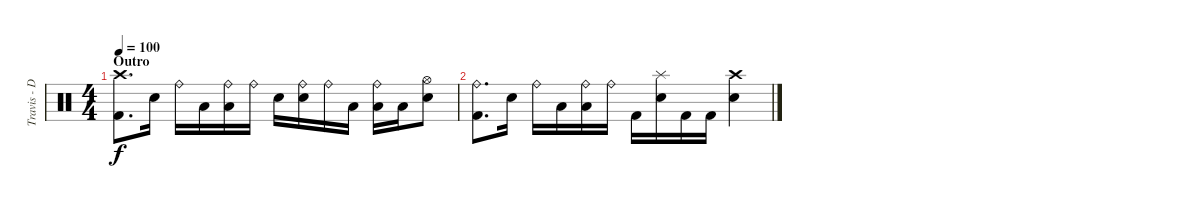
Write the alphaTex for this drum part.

\track ("Travis - Drums" "Travis - D") {instrument percussion}
\staff {score}
\articulation defaults
\ts (4 4)
\section ("" "Outro")
\tempo 100
\clef neutral
\ks c
("Crash high (hit)" "Kick (hit) 2").8{d dy f volume 13} "Electric Snare (hit)".16 "Ride (bell)".16 "Low Tom (hit)".16 ("Ride (bell)" "Low Tom (hit)").16 "Ride (bell)".16 "Electric Snare (hit)".16 ("Ride (bell)" "Electric Snare (hit)").16 "Ride (bell)".16 "Low Tom (hit)".16 ("Ride (bell)" "Low Tom (hit)").16 "Low Tom (hit)".16 ("Hi-Hat (open)" "Electric Snare (hit)").8 |
("Ride (bell)" "Kick (hit) 2").8{d} "Electric Snare (hit)".16 "Ride (bell)".16 "Low Tom (hit)".16 ("Ride (bell)" "Low Tom (hit)").16 "Ride (bell)".16 "Kick (hit) 2".16 ("Splash (hit)" "Electric Snare (hit)").16 "Kick (hit) 2".16 "Kick (hit) 2".16 ("Crash high (hit)" "Electric Snare (hit)").4
